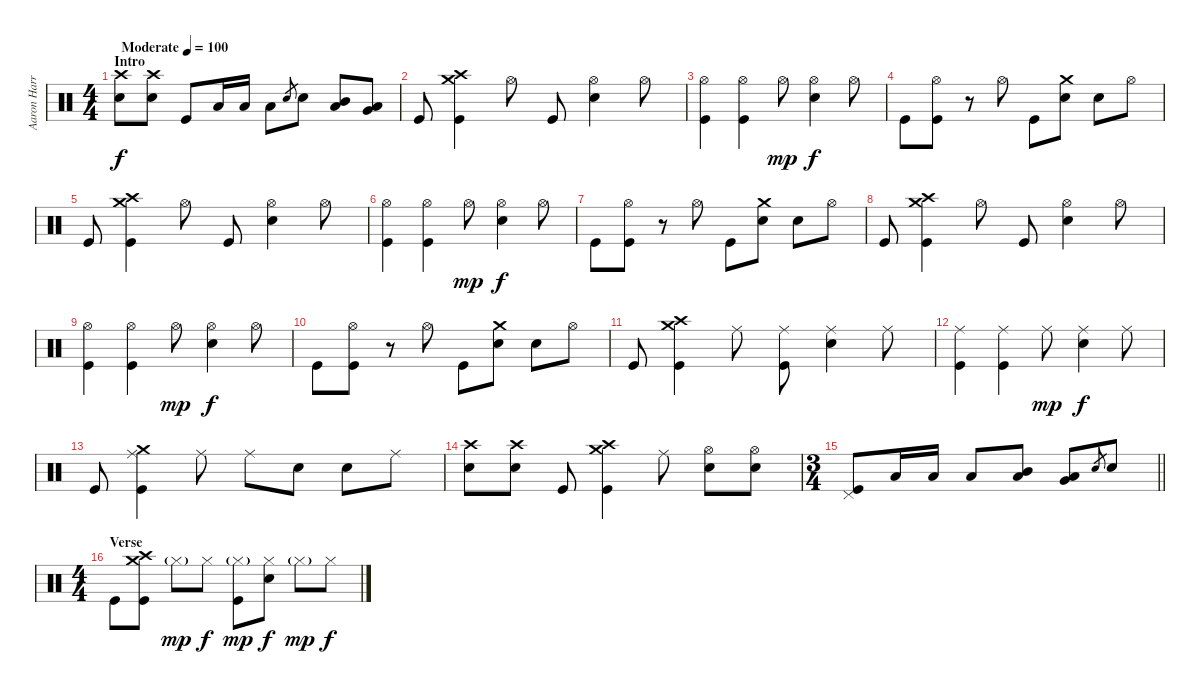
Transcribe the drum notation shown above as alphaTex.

\track ("Aaron Harris" "Aaron Harr") {instrument percussion}
\staff {score}
\articulation defaults
\ts (4 4)
\section ("" "Intro")
\tempo (100 "Moderate")
\clef neutral
\ks c
("Crash high (hit)" "Electric Snare (hit)").8{dy f} ("Crash high (hit)" "Electric Snare (hit)").8 "Kick (hit)".8 "Low Tom (hit)".16 "Low Tom (hit)".16 "Low Tom (hit)".8 "Electric Snare (hit)".8{gr} "Electric Snare (hit)".8 ("Mid Tom (hit)" "Low Tom (hit)").8 ("Low Tom (hit)" "Very Low Tom (hit)").8 |
"Kick (hit)".8 ("Crash medium (hit)" "Crash high (hit)" "Kick (hit)").4 "Hi-Hat (open)".8 "Kick (hit)".8 ("Hi-Hat (open)" "Electric Snare (hit)").4 "Hi-Hat (open)".8 |
("Hi-Hat (open)" "Kick (hit)").4 ("Hi-Hat (open)" "Kick (hit)").4 "Hi-Hat (open)".8{dy mp} ("Hi-Hat (open)" "Electric Snare (hit)").4{dy f} "Hi-Hat (open)".8 |
"Kick (hit)".8 ("Hi-Hat (open)" "Kick (hit)").8 r.8 "Hi-Hat (open)".8 "Kick (hit)".8 ("Crash medium (hit)" "Electric Snare (hit)").8 "Electric Snare (hit)".8 "Hi-Hat (open)".8 |
"Kick (hit)".8 ("Crash medium (hit)" "Crash high (hit)" "Kick (hit)").4 "Hi-Hat (open)".8 "Kick (hit)".8 ("Hi-Hat (open)" "Electric Snare (hit)").4 "Hi-Hat (open)".8 |
("Hi-Hat (open)" "Kick (hit)").4 ("Hi-Hat (open)" "Kick (hit)").4 "Hi-Hat (open)".8{dy mp} ("Hi-Hat (open)" "Electric Snare (hit)").4{dy f} "Hi-Hat (open)".8 |
"Kick (hit)".8 ("Hi-Hat (open)" "Kick (hit)").8 r.8 "Hi-Hat (open)".8 "Kick (hit)".8 ("Crash medium (hit)" "Electric Snare (hit)").8 "Electric Snare (hit)".8 "Hi-Hat (open)".8 |
"Kick (hit)".8 ("Crash medium (hit)" "Crash high (hit)" "Kick (hit)").4 "Hi-Hat (open)".8 "Kick (hit)".8 ("Hi-Hat (open)" "Electric Snare (hit)").4 "Hi-Hat (open)".8 |
("Hi-Hat (open)" "Kick (hit)").4 ("Hi-Hat (open)" "Kick (hit)").4 "Hi-Hat (open)".8{dy mp} ("Hi-Hat (open)" "Electric Snare (hit)").4{dy f} "Hi-Hat (open)".8 |
"Kick (hit)".8 ("Hi-Hat (open)" "Kick (hit)").8 r.8 "Hi-Hat (open)".8 "Kick (hit)".8 ("Crash medium (hit)" "Electric Snare (hit)").8 "Electric Snare (hit)".8 "Hi-Hat (open)".8 |
"Kick (hit)".8 ("Crash medium (hit)" "Crash high (hit)" "Kick (hit)").4 "Ride (middle)".8 ("Ride (middle)" "Kick (hit)").8 ("Ride (middle)" "Electric Snare (hit)").4 "Ride (middle)".8 |
("Ride (middle)" "Kick (hit)").4 ("Ride (middle)" "Kick (hit)").4 "Ride (middle)".8{dy mp} ("Ride (middle)" "Electric Snare (hit)").4{dy f} "Ride (middle)".8 |
"Kick (hit)".8 ("Crash medium (hit)" "Ride (middle)" "Kick (hit)").4 "Ride (middle)".8 "Ride (middle)".8 "Electric Snare (hit)".8 "Electric Snare (hit)".8 "Ride (middle)".8 |
("Crash high (hit)" "Electric Snare (hit)").8 ("Crash high (hit)" "Electric Snare (hit)").8 "Kick (hit)".8 ("Crash medium (hit)" "Crash high (hit)" "Kick (hit)").4 "Ride (middle)".8 ("Hi-Hat (open)" "Electric Snare (hit)").8 ("Hi-Hat (open)" "Electric Snare (hit)").8 |
\ts (3 4)
\barLineRight lightlight
("Pedal Hi-Hat (hit)" "Kick (hit)").8 "Low Tom (hit)".16 "Low Tom (hit)".16 "Low Tom (hit)".8 ("Mid Tom (hit)" "Low Tom (hit)").8 ("Low Tom (hit)" "Very Low Tom (hit)").8 "Electric Snare (hit)".8{gr} "Electric Snare (hit)".8 |
\ts (4 4)
\section ("" "Verse")
"Kick (hit)".8 ("Crash medium (hit)" "Crash high (hit)" "Kick (hit)").8 "Hi-Hat (closed)"{g}.8{dy mp} "Hi-Hat (closed)".8{dy f} ("Hi-Hat (closed)"{g} "Kick (hit)").8{dy mp} ("Hi-Hat (closed)" "Electric Snare (hit)").8{dy f} "Hi-Hat (closed)"{g}.8{dy mp} "Hi-Hat (closed)".8{dy f}
